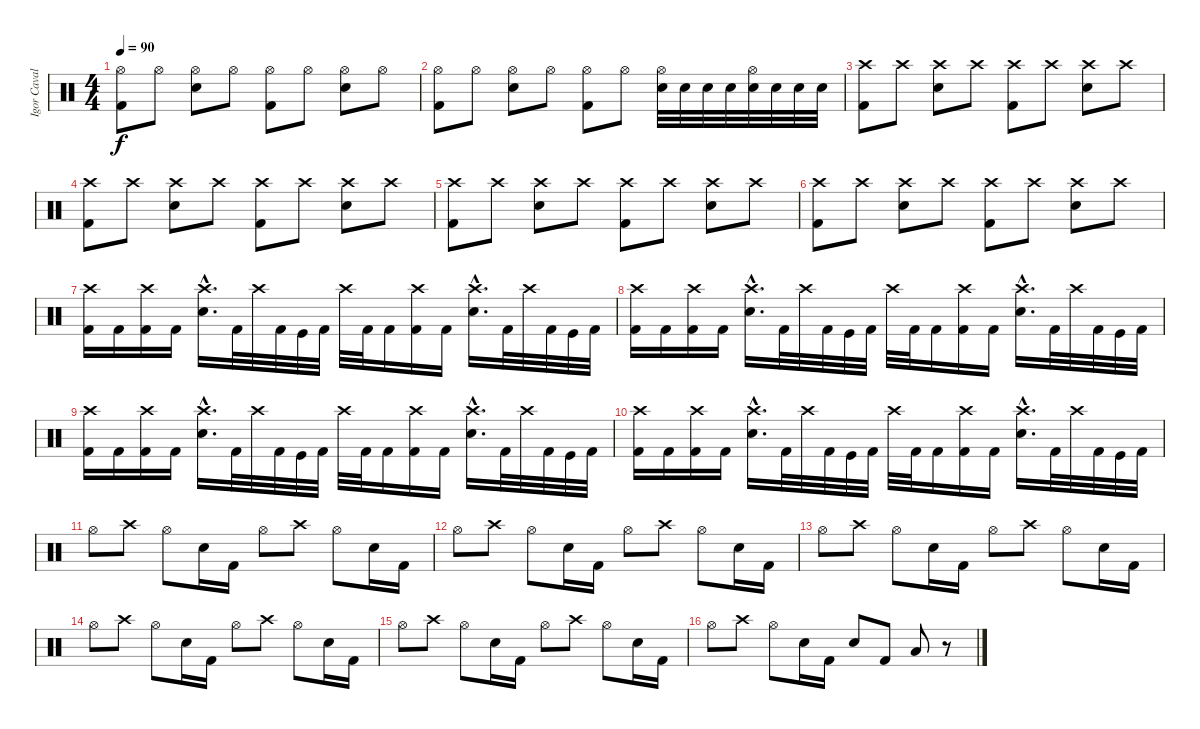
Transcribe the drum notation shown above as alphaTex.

\track ("Igor Cavalera" "Igor Caval") {instrument percussion}
\staff {score}
\articulation defaults
\ts (4 4)
\tempo 90
\clef neutral
\ks c
("Hi-Hat (open)" "Kick (hit) 2").8{dy f} "Hi-Hat (open)".8 ("Hi-Hat (open)" "Snare (hit) 2").8 "Hi-Hat (open)".8 ("Hi-Hat (open)" "Kick (hit) 2").8 "Hi-Hat (open)".8 ("Hi-Hat (open)" "Snare (hit) 2").8 "Hi-Hat (open)".8 |
("Hi-Hat (open)" "Kick (hit) 2").8 "Hi-Hat (open)".8 ("Hi-Hat (open)" "Snare (hit) 2").8 "Hi-Hat (open)".8 ("Hi-Hat (open)" "Kick (hit) 2").8 "Hi-Hat (open)".8 ("Hi-Hat (open)" "Snare (hit) 2").32 "Snare (hit) 2".32 "Snare (hit) 2".32 "Snare (hit) 2".32 ("Hi-Hat (open)" "Snare (hit) 2").32 "Snare (hit) 2".32 "Snare (hit) 2".32 "Snare (hit) 2".32 |
\section ("" "")
("Crash high (hit)" "Kick (hit) 2").8 "Crash high (hit)".8 ("Crash high (hit)" "Snare (hit) 2").8 "Crash high (hit)".8 ("Crash high (hit)" "Kick (hit) 2").8 "Crash high (hit)".8 ("Crash high (hit)" "Snare (hit) 2").8 "Crash high (hit)".8 |
("Crash high (hit)" "Kick (hit) 2").8 "Crash high (hit)".8 ("Crash high (hit)" "Snare (hit) 2").8 "Crash high (hit)".8 ("Crash high (hit)" "Kick (hit) 2").8 "Crash high (hit)".8 ("Crash high (hit)" "Snare (hit) 2").8 "Crash high (hit)".8 |
("Crash high (hit)" "Kick (hit) 2").8 "Crash high (hit)".8 ("Crash high (hit)" "Snare (hit) 2").8 "Crash high (hit)".8 ("Crash high (hit)" "Kick (hit) 2").8 "Crash high (hit)".8 ("Crash high (hit)" "Snare (hit) 2").8 "Crash high (hit)".8 |
("Crash high (hit)" "Kick (hit) 2").8 "Crash high (hit)".8 ("Crash high (hit)" "Snare (hit) 2").8 "Crash high (hit)".8 ("Crash high (hit)" "Kick (hit) 2").8 "Crash high (hit)".8 ("Crash high (hit)" "Snare (hit) 2").8 "Crash high (hit)".8 |
\section ("" "")
("Kick (hit) 2" "Crash high (hit)").16 "Kick (hit) 2".16 ("Kick (hit) 2" "Crash high (hit)").16 "Kick (hit) 2".16 ("Snare (hit) 2"{hac} "Crash high (hit)"{hac}).16{d} "Kick (hit) 2".32 "Crash high (hit)".32 "Kick (hit) 2".32 "Kick (hit)".32 "Kick (hit) 2".32 "Crash high (hit)".32 "Kick (hit) 2".32 "Kick (hit) 2".16 ("Kick (hit) 2" "Crash high (hit)").16 "Kick (hit) 2".16 ("Snare (hit) 2"{hac} "Crash high (hit)"{hac}).16{d} "Kick (hit) 2".32 "Crash high (hit)".32 "Kick (hit) 2".32 "Kick (hit)".32 "Kick (hit) 2".32 |
("Kick (hit) 2" "Crash high (hit)").16 "Kick (hit) 2".16 ("Kick (hit) 2" "Crash high (hit)").16 "Kick (hit) 2".16 ("Snare (hit) 2"{hac} "Crash high (hit)"{hac}).16{d} "Kick (hit) 2".32 "Crash high (hit)".32 "Kick (hit) 2".32 "Kick (hit)".32 "Kick (hit) 2".32 "Crash high (hit)".32 "Kick (hit) 2".32 "Kick (hit) 2".16 ("Kick (hit) 2" "Crash high (hit)").16 "Kick (hit) 2".16 ("Snare (hit) 2"{hac} "Crash high (hit)"{hac}).16{d} "Kick (hit) 2".32 "Crash high (hit)".32 "Kick (hit) 2".32 "Kick (hit)".32 "Kick (hit) 2".32 |
("Kick (hit) 2" "Crash high (hit)").16 "Kick (hit) 2".16 ("Kick (hit) 2" "Crash high (hit)").16 "Kick (hit) 2".16 ("Snare (hit) 2"{hac} "Crash high (hit)"{hac}).16{d} "Kick (hit) 2".32 "Crash high (hit)".32 "Kick (hit) 2".32 "Kick (hit)".32 "Kick (hit) 2".32 "Crash high (hit)".32 "Kick (hit) 2".32 "Kick (hit) 2".16 ("Kick (hit) 2" "Crash high (hit)").16 "Kick (hit) 2".16 ("Snare (hit) 2"{hac} "Crash high (hit)"{hac}).16{d} "Kick (hit) 2".32 "Crash high (hit)".32 "Kick (hit) 2".32 "Kick (hit)".32 "Kick (hit) 2".32 |
("Kick (hit) 2" "Crash high (hit)").16 "Kick (hit) 2".16 ("Kick (hit) 2" "Crash high (hit)").16 "Kick (hit) 2".16 ("Snare (hit) 2"{hac} "Crash high (hit)"{hac}).16{d} "Kick (hit) 2".32 "Crash high (hit)".32 "Kick (hit) 2".32 "Kick (hit)".32 "Kick (hit) 2".32 "Crash high (hit)".32 "Kick (hit) 2".32 "Kick (hit) 2".16 ("Kick (hit) 2" "Crash high (hit)").16 "Kick (hit) 2".16 ("Snare (hit) 2"{hac} "Crash high (hit)"{hac}).16{d} "Kick (hit) 2".32 "Crash high (hit)".32 "Kick (hit) 2".32 "Kick (hit)".32 "Kick (hit) 2".32 |
\section ("" "")
"Hi-Hat (open)".8 "Crash high (hit)".8 "Hi-Hat (open)".8 "Snare (hit) 2".16 "Kick (hit) 2".16 "Hi-Hat (open)".8 "Crash high (hit)".8 "Hi-Hat (open)".8 "Snare (hit) 2".16 "Kick (hit) 2".16 |
"Hi-Hat (open)".8 "Crash high (hit)".8 "Hi-Hat (open)".8 "Snare (hit) 2".16 "Kick (hit) 2".16 "Hi-Hat (open)".8 "Crash high (hit)".8 "Hi-Hat (open)".8 "Snare (hit) 2".16 "Kick (hit) 2".16 |
"Hi-Hat (open)".8 "Crash high (hit)".8 "Hi-Hat (open)".8 "Snare (hit) 2".16 "Kick (hit) 2".16 "Hi-Hat (open)".8 "Crash high (hit)".8 "Hi-Hat (open)".8 "Snare (hit) 2".16 "Kick (hit) 2".16 |
"Hi-Hat (open)".8 "Crash high (hit)".8 "Hi-Hat (open)".8 "Snare (hit) 2".16 "Kick (hit) 2".16 "Hi-Hat (open)".8 "Crash high (hit)".8 "Hi-Hat (open)".8 "Snare (hit) 2".16 "Kick (hit) 2".16 |
"Hi-Hat (open)".8 "Crash high (hit)".8 "Hi-Hat (open)".8 "Snare (hit) 2".16 "Kick (hit) 2".16 "Hi-Hat (open)".8 "Crash high (hit)".8 "Hi-Hat (open)".8 "Snare (hit) 2".16 "Kick (hit) 2".16 |
"Hi-Hat (open)".8 "Crash high (hit)".8 "Hi-Hat (open)".8 "Snare (hit) 2".16 "Kick (hit) 2".16 "Snare (hit) 2".8 "Kick (hit) 2".8 "Low Tom (hit)".8 r.8
